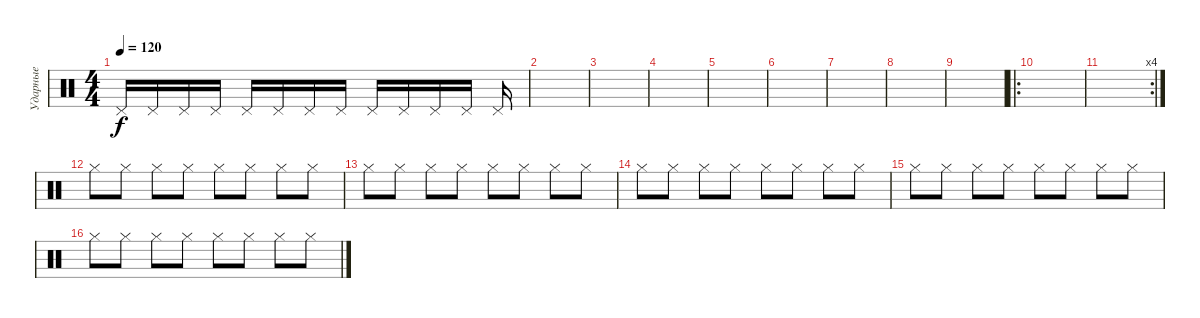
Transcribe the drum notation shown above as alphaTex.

\track ("Ударные" "Ударные") {instrument percussion}
\staff {score}
\articulation defaults
\ts (4 4)
\tempo 120
\clef neutral
\ks c "Pedal Hi-Hat (hit)".16{dy f} "Pedal Hi-Hat (hit)".16 "Pedal Hi-Hat (hit)".16 "Pedal Hi-Hat (hit)".16 "Pedal Hi-Hat (hit)".16 "Pedal Hi-Hat (hit)".16 "Pedal Hi-Hat (hit)".16 "Pedal Hi-Hat (hit)".16 "Pedal Hi-Hat (hit)".16 "Pedal Hi-Hat (hit)".16 "Pedal Hi-Hat (hit)".16 "Pedal Hi-Hat (hit)".16 "Pedal Hi-Hat (hit)".16
|
|
|
|
|
|
|
|
|
\ro
|
\rc 4
|
"Hi-Hat (closed)".8 "Hi-Hat (closed)".8 "Hi-Hat (closed)".8 "Hi-Hat (closed)".8 "Hi-Hat (closed)".8 "Hi-Hat (closed)".8 "Hi-Hat (closed)".8 "Hi-Hat (closed)".8 |
"Hi-Hat (closed)".8 "Hi-Hat (closed)".8 "Hi-Hat (closed)".8 "Hi-Hat (closed)".8 "Hi-Hat (closed)".8 "Hi-Hat (closed)".8 "Hi-Hat (closed)".8 "Hi-Hat (closed)".8 |
"Hi-Hat (closed)".8 "Hi-Hat (closed)".8 "Hi-Hat (closed)".8 "Hi-Hat (closed)".8 "Hi-Hat (closed)".8 "Hi-Hat (closed)".8 "Hi-Hat (closed)".8 "Hi-Hat (closed)".8 |
"Hi-Hat (closed)".8 "Hi-Hat (closed)".8 "Hi-Hat (closed)".8 "Hi-Hat (closed)".8 "Hi-Hat (closed)".8 "Hi-Hat (closed)".8 "Hi-Hat (closed)".8 "Hi-Hat (closed)".8 |
"Hi-Hat (closed)".8 "Hi-Hat (closed)".8 "Hi-Hat (closed)".8 "Hi-Hat (closed)".8 "Hi-Hat (closed)".8 "Hi-Hat (closed)".8 "Hi-Hat (closed)".8 "Hi-Hat (closed)".8
